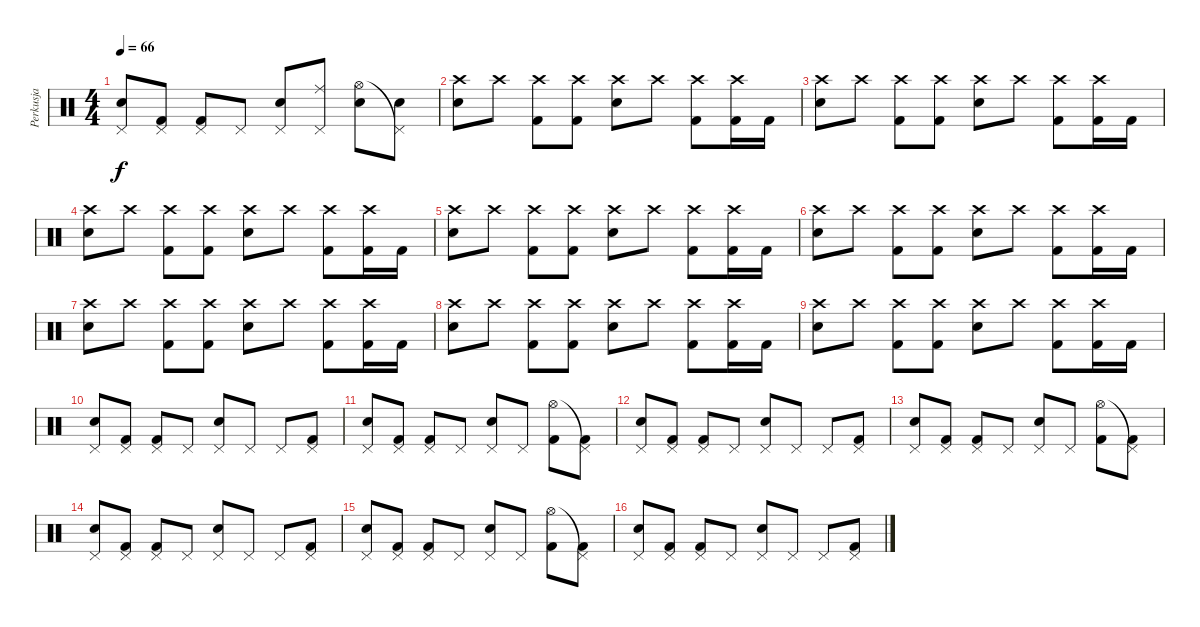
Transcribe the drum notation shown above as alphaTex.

\track ("Perkusja" "Perkusja") {instrument percussion}
\staff {score}
\articulation defaults
\ts (4 4)
\tempo 66
\clef neutral
\ks c
("Snare (hit) 2" "Pedal Hi-Hat (hit)").8{dy f} ("Kick (hit) 2" "Pedal Hi-Hat (hit)").8 ("Kick (hit) 2" "Pedal Hi-Hat (hit)").8 "Pedal Hi-Hat (hit)".8 ("Snare (hit) 2" "Pedal Hi-Hat (hit)").8 ("Pedal Hi-Hat (hit)" "Ride (middle)").8 ("Snare (hit) 2" "Hi-Hat (open)").8 ("Snare (hit) 2" "Pedal Hi-Hat (hit)"{t}).8 |
("Snare (hit) 2" "Crash high (hit)").8 "Crash high (hit)".8 ("Kick (hit) 2" "Crash high (hit)").8 ("Kick (hit) 2" "Crash high (hit)").8 ("Snare (hit) 2" "Crash high (hit)").8 "Crash high (hit)".8 ("Kick (hit) 2" "Crash high (hit)").8 ("Kick (hit) 2" "Crash high (hit)").16 "Kick (hit) 2".16 |
("Snare (hit) 2" "Crash high (hit)").8 "Crash high (hit)".8 ("Kick (hit) 2" "Crash high (hit)").8 ("Kick (hit) 2" "Crash high (hit)").8 ("Snare (hit) 2" "Crash high (hit)").8 "Crash high (hit)".8 ("Kick (hit) 2" "Crash high (hit)").8 ("Kick (hit) 2" "Crash high (hit)").16 "Kick (hit) 2".16 |
("Snare (hit) 2" "Crash high (hit)").8 "Crash high (hit)".8 ("Kick (hit) 2" "Crash high (hit)").8 ("Kick (hit) 2" "Crash high (hit)").8 ("Snare (hit) 2" "Crash high (hit)").8 "Crash high (hit)".8 ("Kick (hit) 2" "Crash high (hit)").8 ("Kick (hit) 2" "Crash high (hit)").16 "Kick (hit) 2".16 |
("Snare (hit) 2" "Crash high (hit)").8 "Crash high (hit)".8 ("Kick (hit) 2" "Crash high (hit)").8 ("Kick (hit) 2" "Crash high (hit)").8 ("Snare (hit) 2" "Crash high (hit)").8 "Crash high (hit)".8 ("Kick (hit) 2" "Crash high (hit)").8 ("Kick (hit) 2" "Crash high (hit)").16 "Kick (hit) 2".16 |
("Snare (hit) 2" "Crash high (hit)").8 "Crash high (hit)".8 ("Kick (hit) 2" "Crash high (hit)").8 ("Kick (hit) 2" "Crash high (hit)").8 ("Snare (hit) 2" "Crash high (hit)").8 "Crash high (hit)".8 ("Kick (hit) 2" "Crash high (hit)").8 ("Kick (hit) 2" "Crash high (hit)").16 "Kick (hit) 2".16 |
("Snare (hit) 2" "Crash high (hit)").8 "Crash high (hit)".8 ("Kick (hit) 2" "Crash high (hit)").8 ("Kick (hit) 2" "Crash high (hit)").8 ("Snare (hit) 2" "Crash high (hit)").8 "Crash high (hit)".8 ("Kick (hit) 2" "Crash high (hit)").8 ("Kick (hit) 2" "Crash high (hit)").16 "Kick (hit) 2".16 |
("Snare (hit) 2" "Crash high (hit)").8 "Crash high (hit)".8 ("Kick (hit) 2" "Crash high (hit)").8 ("Kick (hit) 2" "Crash high (hit)").8 ("Snare (hit) 2" "Crash high (hit)").8 "Crash high (hit)".8 ("Kick (hit) 2" "Crash high (hit)").8 ("Kick (hit) 2" "Crash high (hit)").16 "Kick (hit) 2".16 |
("Snare (hit) 2" "Crash high (hit)").8 "Crash high (hit)".8 ("Kick (hit) 2" "Crash high (hit)").8 ("Kick (hit) 2" "Crash high (hit)").8 ("Snare (hit) 2" "Crash high (hit)").8 "Crash high (hit)".8 ("Kick (hit) 2" "Crash high (hit)").8 ("Kick (hit) 2" "Crash high (hit)").16 "Kick (hit) 2".16 |
("Snare (hit) 2" "Pedal Hi-Hat (hit)").8 ("Kick (hit) 2" "Pedal Hi-Hat (hit)").8 ("Kick (hit) 2" "Pedal Hi-Hat (hit)").8 "Pedal Hi-Hat (hit)".8 ("Snare (hit) 2" "Pedal Hi-Hat (hit)").8 "Pedal Hi-Hat (hit)".8 "Pedal Hi-Hat (hit)".8 ("Kick (hit) 2" "Pedal Hi-Hat (hit)").8 |
("Snare (hit) 2" "Pedal Hi-Hat (hit)").8 ("Kick (hit) 2" "Pedal Hi-Hat (hit)").8 ("Kick (hit) 2" "Pedal Hi-Hat (hit)").8 "Pedal Hi-Hat (hit)".8 ("Snare (hit) 2" "Pedal Hi-Hat (hit)").8 "Pedal Hi-Hat (hit)".8 ("Kick (hit) 2" "Hi-Hat (open)").8 ("Kick (hit) 2" "Pedal Hi-Hat (hit)"{t}).8 |
("Snare (hit) 2" "Pedal Hi-Hat (hit)").8 ("Kick (hit) 2" "Pedal Hi-Hat (hit)").8 ("Kick (hit) 2" "Pedal Hi-Hat (hit)").8 "Pedal Hi-Hat (hit)".8 ("Snare (hit) 2" "Pedal Hi-Hat (hit)").8 "Pedal Hi-Hat (hit)".8 "Pedal Hi-Hat (hit)".8 ("Kick (hit) 2" "Pedal Hi-Hat (hit)").8 |
("Snare (hit) 2" "Pedal Hi-Hat (hit)").8 ("Kick (hit) 2" "Pedal Hi-Hat (hit)").8 ("Kick (hit) 2" "Pedal Hi-Hat (hit)").8 "Pedal Hi-Hat (hit)".8 ("Snare (hit) 2" "Pedal Hi-Hat (hit)").8 "Pedal Hi-Hat (hit)".8 ("Kick (hit) 2" "Hi-Hat (open)").8 ("Kick (hit) 2" "Pedal Hi-Hat (hit)"{t}).8 |
("Snare (hit) 2" "Pedal Hi-Hat (hit)").8 ("Kick (hit) 2" "Pedal Hi-Hat (hit)").8 ("Kick (hit) 2" "Pedal Hi-Hat (hit)").8 "Pedal Hi-Hat (hit)".8 ("Snare (hit) 2" "Pedal Hi-Hat (hit)").8 "Pedal Hi-Hat (hit)".8 "Pedal Hi-Hat (hit)".8 ("Kick (hit) 2" "Pedal Hi-Hat (hit)").8 |
("Snare (hit) 2" "Pedal Hi-Hat (hit)").8 ("Kick (hit) 2" "Pedal Hi-Hat (hit)").8 ("Kick (hit) 2" "Pedal Hi-Hat (hit)").8 "Pedal Hi-Hat (hit)".8 ("Snare (hit) 2" "Pedal Hi-Hat (hit)").8 "Pedal Hi-Hat (hit)".8 ("Kick (hit) 2" "Hi-Hat (open)").8 ("Kick (hit) 2" "Pedal Hi-Hat (hit)"{t}).8 |
("Snare (hit) 2" "Pedal Hi-Hat (hit)").8 ("Kick (hit) 2" "Pedal Hi-Hat (hit)").8 ("Kick (hit) 2" "Pedal Hi-Hat (hit)").8 "Pedal Hi-Hat (hit)".8 ("Snare (hit) 2" "Pedal Hi-Hat (hit)").8 "Pedal Hi-Hat (hit)".8 "Pedal Hi-Hat (hit)".8 ("Kick (hit) 2" "Pedal Hi-Hat (hit)").8
